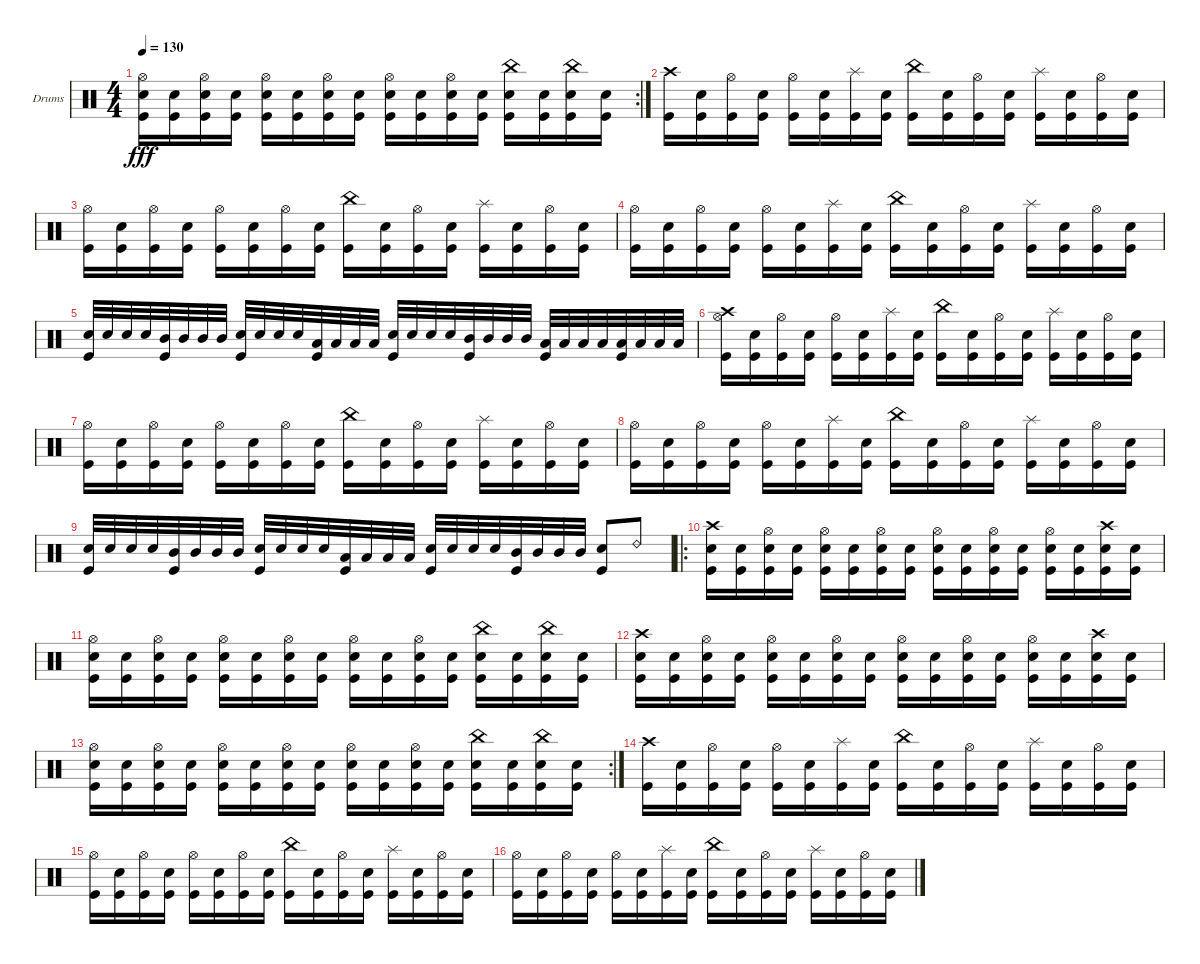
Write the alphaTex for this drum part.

\bracketExtendMode groupsimilarinstruments
\firstSystemTrackNameOrientation horizontal
\otherSystemsTrackNameOrientation horizontal
\track ("Drumkit" "Drums") {instrument percussion}
\staff {score}
\articulation defaults
\rc 2
\ts (4 4)
\tempo 130
\clef neutral
\scale
0.356322
\ks c
("Snare (hit) 2" "Kick (hit)" "Hi-Hat (open)").16{dy fff} ("Snare (hit) 2" "Kick (hit)").16 ("Snare (hit) 2" "Kick (hit)" "Hi-Hat (open)").16 ("Snare (hit) 2" "Kick (hit)").16 ("Snare (hit) 2" "Kick (hit)" "Hi-Hat (open)").16 ("Snare (hit) 2" "Kick (hit)").16 ("Snare (hit) 2" "Kick (hit)" "Hi-Hat (open)").16 ("Snare (hit) 2" "Kick (hit)").16 ("Snare (hit) 2" "Kick (hit)" "Hi-Hat (open)").16 ("Snare (hit) 2" "Kick (hit)").16 ("Snare (hit) 2" "Kick (hit)" "Hi-Hat (open)").16 ("Snare (hit) 2" "Kick (hit)").16 ("Snare (hit) 2" "Kick (hit)" "China (hit)").16 ("Snare (hit) 2" "Kick (hit)").16 ("Snare (hit) 2" "Kick (hit)" "China (hit)").16 ("Snare (hit) 2" "Kick (hit)").16 |
\scale
0.321839 ("Kick (hit)" "Crash high (hit)").16 ("Snare (hit) 2" "Kick (hit)").16 ("Kick (hit)" "Hi-Hat (open)").16 ("Snare (hit) 2" "Kick (hit)").16 ("Kick (hit)" "Hi-Hat (open)").16 ("Snare (hit) 2" "Kick (hit)").16 ("Kick (hit)" "Splash (hit)").16 ("Snare (hit) 2" "Kick (hit)").16 ("Kick (hit)" "China (hit)").16 ("Snare (hit) 2" "Kick (hit)").16 ("Kick (hit)" "Hi-Hat (open)").16 ("Snare (hit) 2" "Kick (hit)").16 ("Kick (hit)" "Splash (hit)").16 ("Snare (hit) 2" "Kick (hit)").16 ("Kick (hit)" "Hi-Hat (open)").16 ("Snare (hit) 2" "Kick (hit)").16 |
\scale
0.333333 ("Kick (hit)" "Hi-Hat (open)").16 ("Snare (hit) 2" "Kick (hit)").16 ("Kick (hit)" "Hi-Hat (open)").16 ("Snare (hit) 2" "Kick (hit)").16 ("Kick (hit)" "Hi-Hat (open)").16 ("Snare (hit) 2" "Kick (hit)").16 ("Kick (hit)" "Hi-Hat (open)").16 ("Snare (hit) 2" "Kick (hit)").16 ("Kick (hit)" "China (hit)").16 ("Snare (hit) 2" "Kick (hit)").16 ("Kick (hit)" "Hi-Hat (open)").16 ("Snare (hit) 2" "Kick (hit)").16 ("Kick (hit)" "Splash (hit)").16 ("Snare (hit) 2" "Kick (hit)").16 ("Kick (hit)" "Hi-Hat (open)").16 ("Snare (hit) 2" "Kick (hit)").16 |
\scale
0.333333 ("Kick (hit)" "Hi-Hat (open)").16 ("Snare (hit) 2" "Kick (hit)").16 ("Kick (hit)" "Hi-Hat (open)").16 ("Snare (hit) 2" "Kick (hit)").16 ("Kick (hit)" "Hi-Hat (open)").16 ("Snare (hit) 2" "Kick (hit)").16 ("Kick (hit)" "Splash (hit)").16 ("Snare (hit) 2" "Kick (hit)").16 ("Kick (hit)" "China (hit)").16 ("Snare (hit) 2" "Kick (hit)").16 ("Kick (hit)" "Hi-Hat (open)").16 ("Snare (hit) 2" "Kick (hit)").16 ("Kick (hit)" "Splash (hit)").16 ("Snare (hit) 2" "Kick (hit)").16 ("Kick (hit)" "Hi-Hat (open)").16 ("Snare (hit) 2" "Kick (hit)").16 |
\scale
0.333333 ("Kick (hit)" "Snare (hit) 2").32 "Snare (hit) 2".32 "Snare (hit) 2".32 "Snare (hit) 2".32 ("Kick (hit)" "Mid Tom (hit)").32 "Mid Tom (hit)".32 "Mid Tom (hit)".32 "Mid Tom (hit)".32 ("Kick (hit)" "Snare (hit) 2").32 "Snare (hit) 2".32 "Snare (hit) 2".32 "Snare (hit) 2".32 ("Kick (hit)" "Low Tom (hit)").32 "Low Tom (hit)".32 "Low Tom (hit)".32 "Low Tom (hit)".32 ("Kick (hit)" "Snare (hit) 2").32 "Snare (hit) 2".32 "Snare (hit) 2".32 "Snare (hit) 2".32 ("Kick (hit)" "Mid Tom (hit)").32 "Mid Tom (hit)".32 "Mid Tom (hit)".32 "Mid Tom (hit)".32 ("Kick (hit)" "Low Tom (hit)").32 "Low Tom (hit)".32 "Low Tom (hit)".32 "Low Tom (hit)".32 ("Kick (hit)" "Low Tom (hit)").32 "Low Tom (hit)".32 "Low Tom (hit)".32 "Low Tom (hit)".32 |
\scale
0.333333 ("Kick (hit)" "Hi-Hat (open)" "Crash high (hit)").16 ("Snare (hit) 2" "Kick (hit)").16 ("Kick (hit)" "Hi-Hat (open)").16 ("Snare (hit) 2" "Kick (hit)").16 ("Kick (hit)" "Hi-Hat (open)").16 ("Snare (hit) 2" "Kick (hit)").16 ("Kick (hit)" "Splash (hit)").16 ("Snare (hit) 2" "Kick (hit)").16 ("Kick (hit)" "China (hit)").16 ("Snare (hit) 2" "Kick (hit)").16 ("Kick (hit)" "Hi-Hat (open)").16 ("Snare (hit) 2" "Kick (hit)").16 ("Kick (hit)" "Splash (hit)").16 ("Snare (hit) 2" "Kick (hit)").16 ("Kick (hit)" "Hi-Hat (open)").16 ("Snare (hit) 2" "Kick (hit)").16 |
\scale
0.333333 ("Kick (hit)" "Hi-Hat (open)").16 ("Snare (hit) 2" "Kick (hit)").16 ("Kick (hit)" "Hi-Hat (open)").16 ("Snare (hit) 2" "Kick (hit)").16 ("Kick (hit)" "Hi-Hat (open)").16 ("Snare (hit) 2" "Kick (hit)").16 ("Kick (hit)" "Hi-Hat (open)").16 ("Snare (hit) 2" "Kick (hit)").16 ("Kick (hit)" "China (hit)").16 ("Snare (hit) 2" "Kick (hit)").16 ("Kick (hit)" "Hi-Hat (open)").16 ("Snare (hit) 2" "Kick (hit)").16 ("Kick (hit)" "Splash (hit)").16 ("Snare (hit) 2" "Kick (hit)").16 ("Kick (hit)" "Hi-Hat (open)").16 ("Snare (hit) 2" "Kick (hit)").16 |
\scale
0.333333 ("Kick (hit)" "Hi-Hat (open)").16 ("Snare (hit) 2" "Kick (hit)").16 ("Kick (hit)" "Hi-Hat (open)").16 ("Snare (hit) 2" "Kick (hit)").16 ("Kick (hit)" "Hi-Hat (open)").16 ("Snare (hit) 2" "Kick (hit)").16 ("Kick (hit)" "Splash (hit)").16 ("Snare (hit) 2" "Kick (hit)").16 ("Kick (hit)" "China (hit)").16 ("Snare (hit) 2" "Kick (hit)").16 ("Kick (hit)" "Hi-Hat (open)").16 ("Snare (hit) 2" "Kick (hit)").16 ("Kick (hit)" "Splash (hit)").16 ("Snare (hit) 2" "Kick (hit)").16 ("Kick (hit)" "Hi-Hat (open)").16 ("Snare (hit) 2" "Kick (hit)").16 |
\scale
0.311111 ("Kick (hit)" "Snare (hit) 2").32 "Snare (hit) 2".32 "Snare (hit) 2".32 "Snare (hit) 2".32 ("Kick (hit)" "Mid Tom (hit)").32 "Mid Tom (hit)".32 "Mid Tom (hit)".32 "Mid Tom (hit)".32 ("Kick (hit)" "Snare (hit) 2").32 "Snare (hit) 2".32 "Snare (hit) 2".32 "Snare (hit) 2".32 ("Kick (hit)" "Low Tom (hit)").32 "Low Tom (hit)".32 "Low Tom (hit)".32 "Low Tom (hit)".32 ("Kick (hit)" "Snare (hit) 2").32 "Snare (hit) 2".32 "Snare (hit) 2".32 "Snare (hit) 2".32 ("Kick (hit)" "Mid Tom (hit)").32 "Mid Tom (hit)".32 "Mid Tom (hit)".32 "Mid Tom (hit)".32 ("Kick (hit)" "Snare (hit) 2").8 "Ride (bell) 2".8 |
\ro
\scale
0.377778 ("Snare (hit) 2" "Kick (hit)" "Crash high (hit)").16 ("Snare (hit) 2" "Kick (hit)").16 ("Snare (hit) 2" "Kick (hit)" "Hi-Hat (open)").16 ("Snare (hit) 2" "Kick (hit)").16 ("Snare (hit) 2" "Kick (hit)" "Hi-Hat (open)").16 ("Snare (hit) 2" "Kick (hit)").16 ("Snare (hit) 2" "Kick (hit)" "Hi-Hat (open)").16 ("Snare (hit) 2" "Kick (hit)").16 ("Snare (hit) 2" "Kick (hit)" "Hi-Hat (open)").16 ("Snare (hit) 2" "Kick (hit)").16 ("Snare (hit) 2" "Kick (hit)" "Hi-Hat (open)").16 ("Snare (hit) 2" "Kick (hit)").16 ("Snare (hit) 2" "Kick (hit)" "Hi-Hat (open)").16 ("Snare (hit) 2" "Kick (hit)").16 ("Snare (hit) 2" "Kick (hit)" "Crash high (hit)").16 ("Snare (hit) 2" "Kick (hit)").16 |
\scale
0.311111 ("Snare (hit) 2" "Kick (hit)" "Hi-Hat (open)").16 ("Snare (hit) 2" "Kick (hit)").16 ("Snare (hit) 2" "Kick (hit)" "Hi-Hat (open)").16 ("Snare (hit) 2" "Kick (hit)").16 ("Snare (hit) 2" "Kick (hit)" "Hi-Hat (open)").16 ("Snare (hit) 2" "Kick (hit)").16 ("Snare (hit) 2" "Kick (hit)" "Hi-Hat (open)").16 ("Snare (hit) 2" "Kick (hit)").16 ("Snare (hit) 2" "Kick (hit)" "Hi-Hat (open)").16 ("Snare (hit) 2" "Kick (hit)").16 ("Snare (hit) 2" "Kick (hit)" "Hi-Hat (open)").16 ("Snare (hit) 2" "Kick (hit)").16 ("Snare (hit) 2" "Kick (hit)" "China (hit)").16 ("Snare (hit) 2" "Kick (hit)").16 ("Snare (hit) 2" "Kick (hit)" "China (hit)").16 ("Snare (hit) 2" "Kick (hit)").16 |
\scale
0.321839 ("Snare (hit) 2" "Kick (hit)" "Crash high (hit)").16 ("Snare (hit) 2" "Kick (hit)").16 ("Snare (hit) 2" "Kick (hit)" "Hi-Hat (open)").16 ("Snare (hit) 2" "Kick (hit)").16 ("Snare (hit) 2" "Kick (hit)" "Hi-Hat (open)").16 ("Snare (hit) 2" "Kick (hit)").16 ("Snare (hit) 2" "Kick (hit)" "Hi-Hat (open)").16 ("Snare (hit) 2" "Kick (hit)").16 ("Snare (hit) 2" "Kick (hit)" "Hi-Hat (open)").16 ("Snare (hit) 2" "Kick (hit)").16 ("Snare (hit) 2" "Kick (hit)" "Hi-Hat (open)").16 ("Snare (hit) 2" "Kick (hit)").16 ("Snare (hit) 2" "Kick (hit)" "Hi-Hat (open)").16 ("Snare (hit) 2" "Kick (hit)").16 ("Snare (hit) 2" "Kick (hit)" "Crash high (hit)").16 ("Snare (hit) 2" "Kick (hit)").16 |
\rc 2
\scale
0.356322 ("Snare (hit) 2" "Kick (hit)" "Hi-Hat (open)").16 ("Snare (hit) 2" "Kick (hit)").16 ("Snare (hit) 2" "Kick (hit)" "Hi-Hat (open)").16 ("Snare (hit) 2" "Kick (hit)").16 ("Snare (hit) 2" "Kick (hit)" "Hi-Hat (open)").16 ("Snare (hit) 2" "Kick (hit)").16 ("Snare (hit) 2" "Kick (hit)" "Hi-Hat (open)").16 ("Snare (hit) 2" "Kick (hit)").16 ("Snare (hit) 2" "Kick (hit)" "Hi-Hat (open)").16 ("Snare (hit) 2" "Kick (hit)").16 ("Snare (hit) 2" "Kick (hit)" "Hi-Hat (open)").16 ("Snare (hit) 2" "Kick (hit)").16 ("Snare (hit) 2" "Kick (hit)" "China (hit)").16 ("Snare (hit) 2" "Kick (hit)").16 ("Snare (hit) 2" "Kick (hit)" "China (hit)").16 ("Snare (hit) 2" "Kick (hit)").16 |
\scale
0.321839 ("Kick (hit)" "Crash high (hit)").16 ("Snare (hit) 2" "Kick (hit)").16 ("Kick (hit)" "Hi-Hat (open)").16 ("Snare (hit) 2" "Kick (hit)").16 ("Kick (hit)" "Hi-Hat (open)").16 ("Snare (hit) 2" "Kick (hit)").16 ("Kick (hit)" "Splash (hit)").16 ("Snare (hit) 2" "Kick (hit)").16 ("Kick (hit)" "China (hit)").16 ("Snare (hit) 2" "Kick (hit)").16 ("Kick (hit)" "Hi-Hat (open)").16 ("Snare (hit) 2" "Kick (hit)").16 ("Kick (hit)" "Splash (hit)").16 ("Snare (hit) 2" "Kick (hit)").16 ("Kick (hit)" "Hi-Hat (open)").16 ("Snare (hit) 2" "Kick (hit)").16 |
\scale
0.333333 ("Kick (hit)" "Hi-Hat (open)").16 ("Snare (hit) 2" "Kick (hit)").16 ("Kick (hit)" "Hi-Hat (open)").16 ("Snare (hit) 2" "Kick (hit)").16 ("Kick (hit)" "Hi-Hat (open)").16 ("Snare (hit) 2" "Kick (hit)").16 ("Kick (hit)" "Hi-Hat (open)").16 ("Snare (hit) 2" "Kick (hit)").16 ("Kick (hit)" "China (hit)").16 ("Snare (hit) 2" "Kick (hit)").16 ("Kick (hit)" "Hi-Hat (open)").16 ("Snare (hit) 2" "Kick (hit)").16 ("Kick (hit)" "Splash (hit)").16 ("Snare (hit) 2" "Kick (hit)").16 ("Kick (hit)" "Hi-Hat (open)").16 ("Snare (hit) 2" "Kick (hit)").16 |
\scale
0.333333 ("Kick (hit)" "Hi-Hat (open)").16 ("Snare (hit) 2" "Kick (hit)").16 ("Kick (hit)" "Hi-Hat (open)").16 ("Snare (hit) 2" "Kick (hit)").16 ("Kick (hit)" "Hi-Hat (open)").16 ("Snare (hit) 2" "Kick (hit)").16 ("Kick (hit)" "Splash (hit)").16 ("Snare (hit) 2" "Kick (hit)").16 ("Kick (hit)" "China (hit)").16 ("Snare (hit) 2" "Kick (hit)").16 ("Kick (hit)" "Hi-Hat (open)").16 ("Snare (hit) 2" "Kick (hit)").16 ("Kick (hit)" "Splash (hit)").16 ("Snare (hit) 2" "Kick (hit)").16 ("Kick (hit)" "Hi-Hat (open)").16 ("Snare (hit) 2" "Kick (hit)").16
